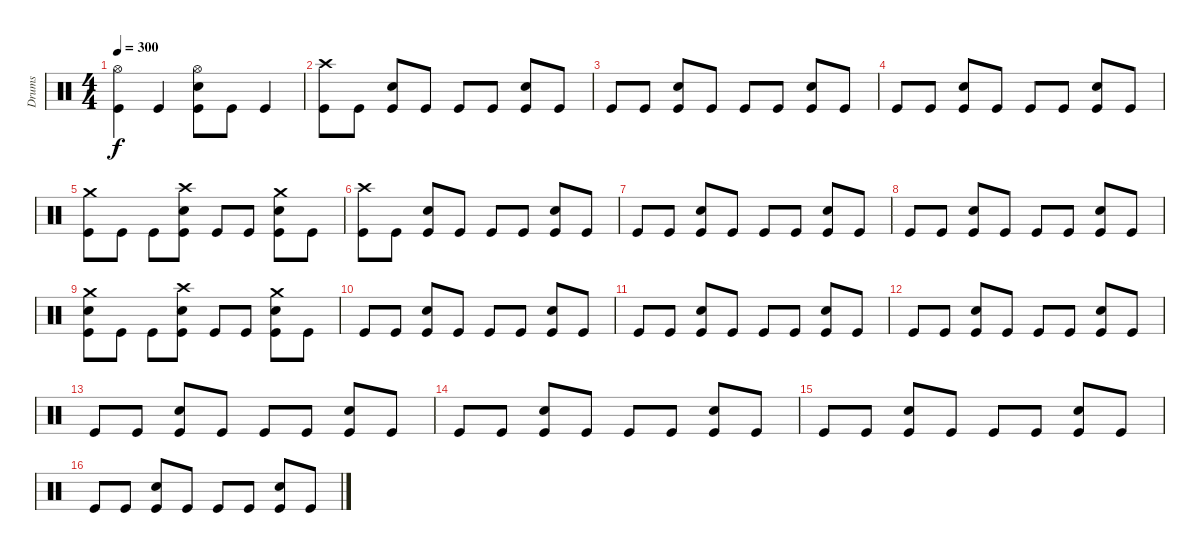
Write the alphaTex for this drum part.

\track ("Drums" "Drums") {instrument percussion}
\staff {score}
\articulation defaults
\ts (4 4)
\tempo 300
\clef neutral
\ks c
("Hi-Hat (open)" "Kick (hit)").4{dy f} "Kick (hit)".4 ("Hi-Hat (open)" "Electric Snare (hit)" "Kick (hit)").8 "Kick (hit)".8 "Kick (hit)".4 |
("Crash high (hit)" "Kick (hit)").8 "Kick (hit)".8 ("Electric Snare (hit)" "Kick (hit)").8 "Kick (hit)".8 "Kick (hit)".8 "Kick (hit)".8 ("Electric Snare (hit)" "Kick (hit)").8 "Kick (hit)".8 |
"Kick (hit)".8 "Kick (hit)".8 ("Electric Snare (hit)" "Kick (hit)").8 "Kick (hit)".8 "Kick (hit)".8 "Kick (hit)".8 ("Electric Snare (hit)" "Kick (hit)").8 "Kick (hit)".8 |
"Kick (hit)".8 "Kick (hit)".8 ("Electric Snare (hit)" "Kick (hit)").8 "Kick (hit)".8 "Kick (hit)".8 "Kick (hit)".8 ("Electric Snare (hit)" "Kick (hit)").8 "Kick (hit)".8 |
("Crash medium (hit)" "Kick (hit)").8 "Kick (hit)".8 "Kick (hit)".8 ("Crash high (hit)" "Electric Snare (hit)" "Kick (hit)").8 "Kick (hit)".8 "Kick (hit)".8 ("Crash medium (hit)" "Electric Snare (hit)" "Kick (hit)").8 "Kick (hit)".8 |
("Crash high (hit)" "Kick (hit)").8 "Kick (hit)".8 ("Electric Snare (hit)" "Kick (hit)").8 "Kick (hit)".8 "Kick (hit)".8 "Kick (hit)".8 ("Electric Snare (hit)" "Kick (hit)").8 "Kick (hit)".8 |
"Kick (hit)".8 "Kick (hit)".8 ("Electric Snare (hit)" "Kick (hit)").8 "Kick (hit)".8 "Kick (hit)".8 "Kick (hit)".8 ("Electric Snare (hit)" "Kick (hit)").8 "Kick (hit)".8 |
"Kick (hit)".8 "Kick (hit)".8 ("Electric Snare (hit)" "Kick (hit)").8 "Kick (hit)".8 "Kick (hit)".8 "Kick (hit)".8 ("Electric Snare (hit)" "Kick (hit)").8 "Kick (hit)".8 |
("Crash medium (hit)" "Electric Snare (hit)" "Kick (hit)").8 "Kick (hit)".8 "Kick (hit)".8 ("Crash high (hit)" "Electric Snare (hit)" "Kick (hit)").8 "Kick (hit)".8 "Kick (hit)".8 ("Crash medium (hit)" "Electric Snare (hit)" "Kick (hit)").8 "Kick (hit)".8 |
"Kick (hit)".8 "Kick (hit)".8 ("Electric Snare (hit)" "Kick (hit)").8 "Kick (hit)".8 "Kick (hit)".8 "Kick (hit)".8 ("Electric Snare (hit)" "Kick (hit)").8 "Kick (hit)".8 |
"Kick (hit)".8 "Kick (hit)".8 ("Electric Snare (hit)" "Kick (hit)").8 "Kick (hit)".8 "Kick (hit)".8 "Kick (hit)".8 ("Electric Snare (hit)" "Kick (hit)").8 "Kick (hit)".8 |
"Kick (hit)".8 "Kick (hit)".8 ("Electric Snare (hit)" "Kick (hit)").8 "Kick (hit)".8 "Kick (hit)".8 "Kick (hit)".8 ("Electric Snare (hit)" "Kick (hit)").8 "Kick (hit)".8 |
"Kick (hit)".8 "Kick (hit)".8 ("Electric Snare (hit)" "Kick (hit)").8 "Kick (hit)".8 "Kick (hit)".8 "Kick (hit)".8 ("Electric Snare (hit)" "Kick (hit)").8 "Kick (hit)".8 |
"Kick (hit)".8 "Kick (hit)".8 ("Electric Snare (hit)" "Kick (hit)").8 "Kick (hit)".8 "Kick (hit)".8 "Kick (hit)".8 ("Electric Snare (hit)" "Kick (hit)").8 "Kick (hit)".8 |
"Kick (hit)".8 "Kick (hit)".8 ("Electric Snare (hit)" "Kick (hit)").8 "Kick (hit)".8 "Kick (hit)".8 "Kick (hit)".8 ("Electric Snare (hit)" "Kick (hit)").8 "Kick (hit)".8 |
"Kick (hit)".8 "Kick (hit)".8 ("Electric Snare (hit)" "Kick (hit)").8 "Kick (hit)".8 "Kick (hit)".8 "Kick (hit)".8 ("Electric Snare (hit)" "Kick (hit)").8 "Kick (hit)".8
